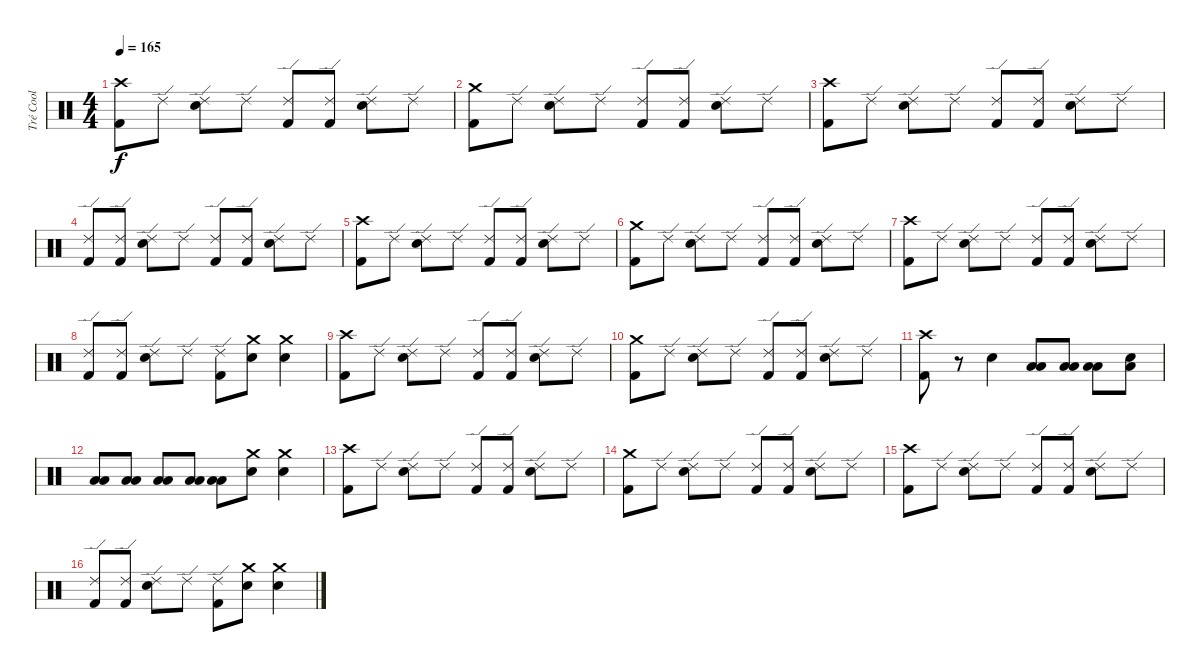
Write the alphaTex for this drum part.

\track ("Tré Cool" "Tré Cool") {instrument percussion}
\staff {score}
\articulation defaults
\ts (4 4)
\tempo 165
\clef neutral
\ks c
("Crash high (hit)" "Kick (hit) 2").8{dy f} "Ride (edge) 2".8 ("Ride (edge) 2" "Electric Snare (hit)").8 "Ride (edge) 2".8 ("Ride (edge) 2" "Kick (hit) 2").8 ("Ride (edge) 2" "Kick (hit) 2").8 ("Ride (edge) 2" "Electric Snare (hit)").8 "Ride (edge) 2".8 |
("Crash medium (hit)" "Kick (hit) 2").8 "Ride (edge) 2".8 ("Ride (edge) 2" "Electric Snare (hit)").8 "Ride (edge) 2".8 ("Ride (edge) 2" "Kick (hit) 2").8 ("Ride (edge) 2" "Kick (hit) 2").8 ("Ride (edge) 2" "Electric Snare (hit)").8 "Ride (edge) 2".8 |
("Crash high (hit)" "Kick (hit) 2").8 "Ride (edge) 2".8 ("Ride (edge) 2" "Electric Snare (hit)").8 "Ride (edge) 2".8 ("Ride (edge) 2" "Kick (hit) 2").8 ("Ride (edge) 2" "Kick (hit) 2").8 ("Ride (edge) 2" "Electric Snare (hit)").8 "Ride (edge) 2".8 |
("Ride (edge) 2" "Kick (hit) 2").8 ("Ride (edge) 2" "Kick (hit) 2").8 ("Ride (edge) 2" "Electric Snare (hit)").8 "Ride (edge) 2".8 ("Ride (edge) 2" "Kick (hit) 2").8 ("Ride (edge) 2" "Kick (hit) 2").8 ("Ride (edge) 2" "Electric Snare (hit)").8 "Ride (edge) 2".8 |
("Crash high (hit)" "Kick (hit) 2").8 "Ride (edge) 2".8 ("Ride (edge) 2" "Electric Snare (hit)").8 "Ride (edge) 2".8 ("Ride (edge) 2" "Kick (hit) 2").8 ("Ride (edge) 2" "Kick (hit) 2").8 ("Ride (edge) 2" "Electric Snare (hit)").8 "Ride (edge) 2".8 |
("Crash medium (hit)" "Kick (hit) 2").8 "Ride (edge) 2".8 ("Ride (edge) 2" "Electric Snare (hit)").8 "Ride (edge) 2".8 ("Ride (edge) 2" "Kick (hit) 2").8 ("Ride (edge) 2" "Kick (hit) 2").8 ("Ride (edge) 2" "Electric Snare (hit)").8 "Ride (edge) 2".8 |
("Crash high (hit)" "Kick (hit) 2").8 "Ride (edge) 2".8 ("Ride (edge) 2" "Electric Snare (hit)").8 "Ride (edge) 2".8 ("Ride (edge) 2" "Kick (hit) 2").8 ("Ride (edge) 2" "Kick (hit) 2").8 ("Ride (edge) 2" "Electric Snare (hit)").8 "Ride (edge) 2".8 |
("Ride (edge) 2" "Kick (hit) 2").8 ("Ride (edge) 2" "Kick (hit) 2").8 ("Ride (edge) 2" "Electric Snare (hit)").8 "Ride (edge) 2".8 ("Ride (edge) 2" "Kick (hit) 2").8 ("Crash medium (hit)" "Electric Snare (hit)").8 ("Crash medium (hit)" "Electric Snare (hit)").4 |
("Crash high (hit)" "Kick (hit) 2").8 "Ride (edge) 2".8 ("Ride (edge) 2" "Electric Snare (hit)").8 "Ride (edge) 2".8 ("Ride (edge) 2" "Kick (hit) 2").8 ("Ride (edge) 2" "Kick (hit) 2").8 ("Ride (edge) 2" "Electric Snare (hit)").8 "Ride (edge) 2".8 |
("Crash medium (hit)" "Kick (hit) 2").8 "Ride (edge) 2".8 ("Ride (edge) 2" "Electric Snare (hit)").8 "Ride (edge) 2".8 ("Ride (edge) 2" "Kick (hit) 2").8 ("Ride (edge) 2" "Kick (hit) 2").8 ("Ride (edge) 2" "Electric Snare (hit)").8 "Ride (edge) 2".8 |
("Crash high (hit)" "Kick (hit) 2").8 r.8 "Electric Snare (hit)".4 ("Low Tom (hit)" "Low Floor Tom (hit)").8 ("Low Tom (hit)" "Low Floor Tom (hit)").8 ("Low Tom (hit)" "Low Floor Tom (hit)").8 ("Electric Snare (hit)" "Low Floor Tom (hit)").8 |
("Low Tom (hit)" "Low Floor Tom (hit)").8 ("Low Tom (hit)" "Low Floor Tom (hit)").8 ("Low Tom (hit)" "Low Floor Tom (hit)").8 ("Low Tom (hit)" "Low Floor Tom (hit)").8 ("Low Tom (hit)" "Low Floor Tom (hit)").8 ("Crash medium (hit)" "Electric Snare (hit)").8 ("Crash medium (hit)" "Electric Snare (hit)").4 |
("Crash high (hit)" "Kick (hit) 2").8 "Ride (edge) 2".8 ("Ride (edge) 2" "Electric Snare (hit)").8 "Ride (edge) 2".8 ("Ride (edge) 2" "Kick (hit) 2").8 ("Ride (edge) 2" "Kick (hit) 2").8 ("Ride (edge) 2" "Electric Snare (hit)").8 "Ride (edge) 2".8 |
("Crash medium (hit)" "Kick (hit) 2").8 "Ride (edge) 2".8 ("Ride (edge) 2" "Electric Snare (hit)").8 "Ride (edge) 2".8 ("Ride (edge) 2" "Kick (hit) 2").8 ("Ride (edge) 2" "Kick (hit) 2").8 ("Ride (edge) 2" "Electric Snare (hit)").8 "Ride (edge) 2".8 |
("Crash high (hit)" "Kick (hit) 2").8 "Ride (edge) 2".8 ("Ride (edge) 2" "Electric Snare (hit)").8 "Ride (edge) 2".8 ("Ride (edge) 2" "Kick (hit) 2").8 ("Ride (edge) 2" "Kick (hit) 2").8 ("Ride (edge) 2" "Electric Snare (hit)").8 "Ride (edge) 2".8 |
("Ride (edge) 2" "Kick (hit) 2").8 ("Ride (edge) 2" "Kick (hit) 2").8 ("Ride (edge) 2" "Electric Snare (hit)").8 "Ride (edge) 2".8 ("Ride (edge) 2" "Kick (hit) 2").8 ("Crash medium (hit)" "Electric Snare (hit)").8 ("Crash medium (hit)" "Electric Snare (hit)").4
